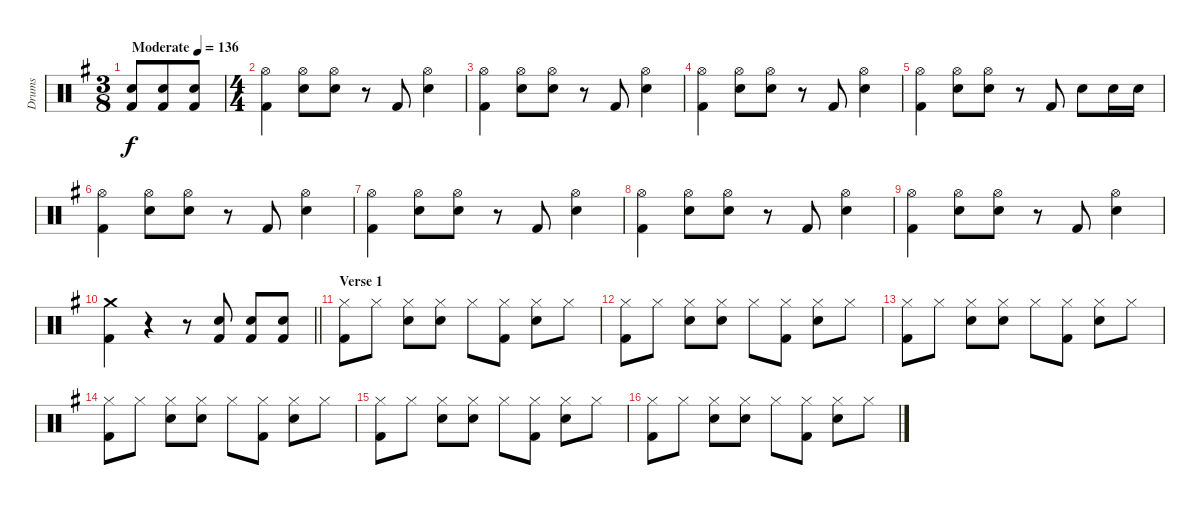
\track ("Drums" "Drums") {instrument percussion}
\staff {score}
\articulation defaults
\ts (3 8)
\tempo (136 "Moderate")
\clef neutral
\ks g
("Kick (hit) 2" "Snare (hit) 2").8{dy f} ("Kick (hit) 2" "Snare (hit) 2").8 ("Kick (hit) 2" "Snare (hit) 2").8 |
\ts (4 4)
("Hi-Hat (open)" "Kick (hit) 2").4 ("Snare (hit) 2" "Hi-Hat (open)").8 ("Snare (hit) 2" "Hi-Hat (open)").8 r.8 "Kick (hit) 2".8 ("Snare (hit) 2" "Hi-Hat (open)").4 |
("Hi-Hat (open)" "Kick (hit) 2").4 ("Snare (hit) 2" "Hi-Hat (open)").8 ("Snare (hit) 2" "Hi-Hat (open)").8 r.8 "Kick (hit) 2".8 ("Snare (hit) 2" "Hi-Hat (open)").4 |
("Hi-Hat (open)" "Kick (hit) 2").4 ("Snare (hit) 2" "Hi-Hat (open)").8 ("Snare (hit) 2" "Hi-Hat (open)").8 r.8 "Kick (hit) 2".8 ("Snare (hit) 2" "Hi-Hat (open)").4 |
("Hi-Hat (open)" "Kick (hit) 2").4 ("Snare (hit) 2" "Hi-Hat (open)").8 ("Snare (hit) 2" "Hi-Hat (open)").8 r.8 "Kick (hit) 2".8 "Snare (hit) 2".8 "Snare (hit) 2".16 "Snare (hit) 2".16 |
("Hi-Hat (open)" "Kick (hit) 2").4 ("Snare (hit) 2" "Hi-Hat (open)").8 ("Snare (hit) 2" "Hi-Hat (open)").8 r.8 "Kick (hit) 2".8 ("Snare (hit) 2" "Hi-Hat (open)").4 |
("Hi-Hat (open)" "Kick (hit) 2").4 ("Snare (hit) 2" "Hi-Hat (open)").8 ("Snare (hit) 2" "Hi-Hat (open)").8 r.8 "Kick (hit) 2".8 ("Snare (hit) 2" "Hi-Hat (open)").4 |
("Hi-Hat (open)" "Kick (hit) 2").4 ("Snare (hit) 2" "Hi-Hat (open)").8 ("Snare (hit) 2" "Hi-Hat (open)").8 r.8 "Kick (hit) 2".8 ("Snare (hit) 2" "Hi-Hat (open)").4 |
("Hi-Hat (open)" "Kick (hit) 2").4 ("Snare (hit) 2" "Hi-Hat (open)").8 ("Snare (hit) 2" "Hi-Hat (open)").8 r.8 "Kick (hit) 2".8 ("Snare (hit) 2" "Hi-Hat (open)").4 |
\barLineRight lightlight
("Kick (hit) 2" "Crash medium (hit)").4 r.4 r.8 ("Kick (hit) 2" "Snare (hit) 2").8 ("Kick (hit) 2" "Snare (hit) 2").8 ("Kick (hit) 2" "Snare (hit) 2").8 |
\section ("" "Verse 1")
("Hi-Hat (closed)" "Kick (hit) 2").8 "Hi-Hat (closed)".8 ("Hi-Hat (closed)" "Snare (hit) 2").8 ("Hi-Hat (closed)" "Snare (hit) 2").8 "Hi-Hat (closed)".8 ("Hi-Hat (closed)" "Kick (hit) 2").8 ("Hi-Hat (closed)" "Snare (hit) 2").8 "Hi-Hat (closed)".8 |
("Hi-Hat (closed)" "Kick (hit) 2").8 "Hi-Hat (closed)".8 ("Hi-Hat (closed)" "Snare (hit) 2").8 ("Hi-Hat (closed)" "Snare (hit) 2").8 "Hi-Hat (closed)".8 ("Hi-Hat (closed)" "Kick (hit) 2").8 ("Hi-Hat (closed)" "Snare (hit) 2").8 "Hi-Hat (closed)".8 |
("Hi-Hat (closed)" "Kick (hit) 2").8 "Hi-Hat (closed)".8 ("Hi-Hat (closed)" "Snare (hit) 2").8 ("Hi-Hat (closed)" "Snare (hit) 2").8 "Hi-Hat (closed)".8 ("Hi-Hat (closed)" "Kick (hit) 2").8 ("Hi-Hat (closed)" "Snare (hit) 2").8 "Hi-Hat (closed)".8 |
("Hi-Hat (closed)" "Kick (hit) 2").8 "Hi-Hat (closed)".8 ("Hi-Hat (closed)" "Snare (hit) 2").8 ("Hi-Hat (closed)" "Snare (hit) 2").8 "Hi-Hat (closed)".8 ("Hi-Hat (closed)" "Kick (hit) 2").8 ("Hi-Hat (closed)" "Snare (hit) 2").8 "Hi-Hat (closed)".8 |
("Hi-Hat (closed)" "Kick (hit) 2").8 "Hi-Hat (closed)".8 ("Hi-Hat (closed)" "Snare (hit) 2").8 ("Hi-Hat (closed)" "Snare (hit) 2").8 "Hi-Hat (closed)".8 ("Hi-Hat (closed)" "Kick (hit) 2").8 ("Hi-Hat (closed)" "Snare (hit) 2").8 "Hi-Hat (closed)".8 |
("Hi-Hat (closed)" "Kick (hit) 2").8 "Hi-Hat (closed)".8 ("Hi-Hat (closed)" "Snare (hit) 2").8 ("Hi-Hat (closed)" "Snare (hit) 2").8 "Hi-Hat (closed)".8 ("Hi-Hat (closed)" "Kick (hit) 2").8 ("Hi-Hat (closed)" "Snare (hit) 2").8 "Hi-Hat (closed)".8
